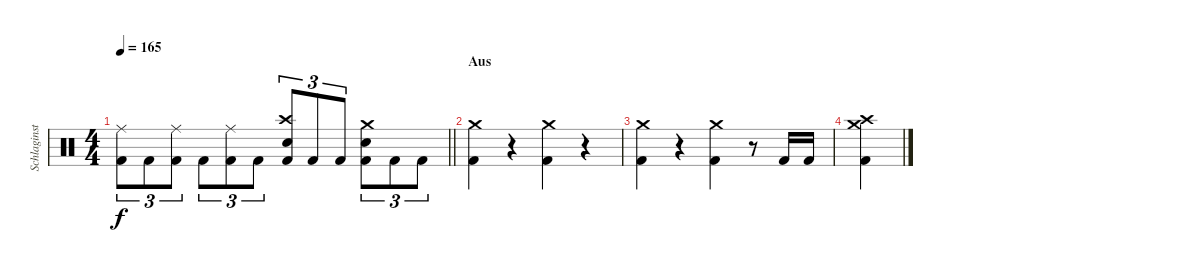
\track ("Schlaginstrumente - Auswahl" "Schlaginst") {instrument percussion}
\staff {score}
\articulation defaults
\ts (4 4)
\tempo 165
\clef neutral
\barLineRight lightlight
\ks c
("Ride (middle)" "Kick (hit) 2").8{tu (3 2) dy f} "Kick (hit) 2".8{tu (3 2)} ("Ride (middle)" "Kick (hit) 2").8{tu (3 2)} "Kick (hit) 2".8{tu (3 2)} ("Ride (middle)" "Kick (hit) 2").8{tu (3 2)} "Kick (hit) 2".8{tu (3 2)} ("Crash high (hit)" "Electric Snare (hit)" "Kick (hit) 2").8{tu (3 2)} "Kick (hit) 2".8{tu (3 2)} "Kick (hit) 2".8{tu (3 2)} ("Crash medium (hit)" "Electric Snare (hit)" "Kick (hit) 2").8{tu (3 2)} "Kick (hit) 2".8{tu (3 2)} "Kick (hit) 2".8{tu (3 2)} |
\section ("" "Aus")
("Crash medium (hit)" "Kick (hit) 2").4 r.4 ("Crash medium (hit)" "Kick (hit) 2").4 r.4 |
("Crash medium (hit)" "Kick (hit) 2").4 r.4 ("Crash medium (hit)" "Kick (hit) 2").4 r.8 "Kick (hit) 2".16 "Kick (hit) 2".16 |
("Crash medium (hit)" "Crash high (hit)" "Kick (hit) 2").4
